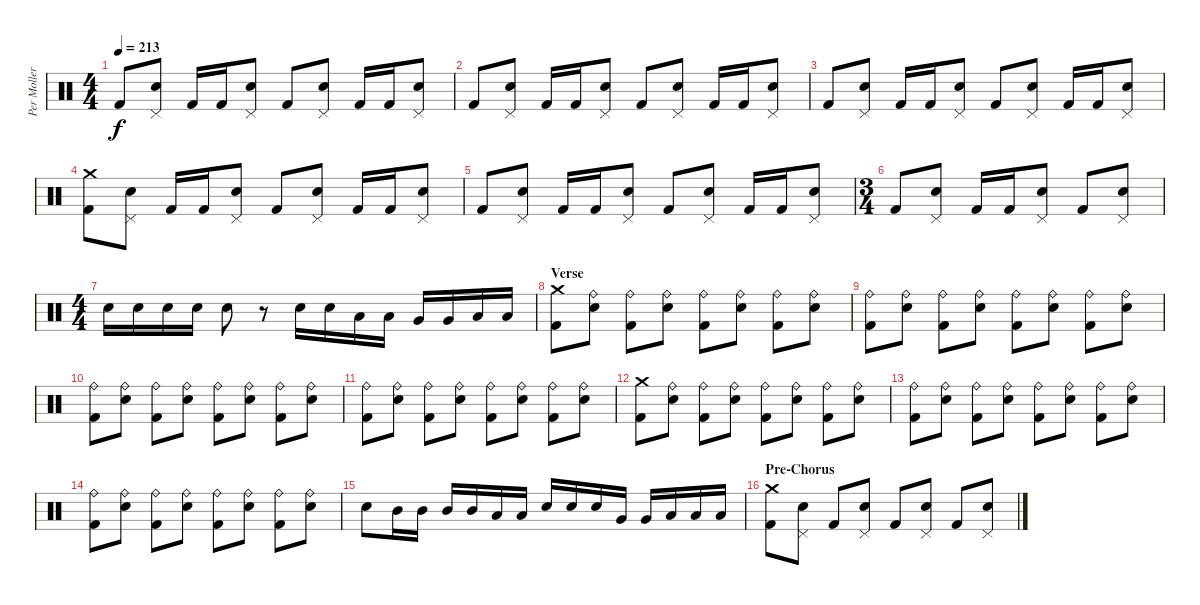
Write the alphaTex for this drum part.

\track ("Per Moller Jensen" "Per Moller") {instrument percussion}
\staff {score}
\articulation defaults
\ts (4 4)
\tempo 213
\clef neutral
\ks c "Kick (hit) 2".8{dy f}
("Pedal Hi-Hat (hit)" "Snare (hit) 2").8 "Kick (hit) 2".16 "Kick (hit) 2".16 ("Pedal Hi-Hat (hit)" "Snare (hit) 2").8 "Kick (hit) 2".8 ("Pedal Hi-Hat (hit)" "Snare (hit) 2").8 "Kick (hit) 2".16 "Kick (hit) 2".16 ("Pedal Hi-Hat (hit)" "Snare (hit) 2").8 |
"Kick (hit) 2".8 ("Pedal Hi-Hat (hit)" "Snare (hit) 2").8 "Kick (hit) 2".16 "Kick (hit) 2".16 ("Pedal Hi-Hat (hit)" "Snare (hit) 2").8 "Kick (hit) 2".8 ("Pedal Hi-Hat (hit)" "Snare (hit) 2").8 "Kick (hit) 2".16 "Kick (hit) 2".16 ("Pedal Hi-Hat (hit)" "Snare (hit) 2").8 |
"Kick (hit) 2".8 ("Pedal Hi-Hat (hit)" "Snare (hit) 2").8 "Kick (hit) 2".16 "Kick (hit) 2".16 ("Pedal Hi-Hat (hit)" "Snare (hit) 2").8 "Kick (hit) 2".8 ("Pedal Hi-Hat (hit)" "Snare (hit) 2").8 "Kick (hit) 2".16 "Kick (hit) 2".16 ("Pedal Hi-Hat (hit)" "Snare (hit) 2").8 |
("Crash medium (hit)" "Kick (hit) 2").8 ("Pedal Hi-Hat (hit)" "Snare (hit) 2").8 "Kick (hit) 2".16 "Kick (hit) 2".16 ("Pedal Hi-Hat (hit)" "Snare (hit) 2").8 "Kick (hit) 2".8 ("Pedal Hi-Hat (hit)" "Snare (hit) 2").8 "Kick (hit) 2".16 "Kick (hit) 2".16 ("Pedal Hi-Hat (hit)" "Snare (hit) 2").8 |
"Kick (hit) 2".8 ("Pedal Hi-Hat (hit)" "Snare (hit) 2").8 "Kick (hit) 2".16 "Kick (hit) 2".16 ("Pedal Hi-Hat (hit)" "Snare (hit) 2").8 "Kick (hit) 2".8 ("Pedal Hi-Hat (hit)" "Snare (hit) 2").8 "Kick (hit) 2".16 "Kick (hit) 2".16 ("Pedal Hi-Hat (hit)" "Snare (hit) 2").8 |
\ts (3 4)
"Kick (hit) 2".8 ("Pedal Hi-Hat (hit)" "Snare (hit) 2").8 "Kick (hit) 2".16 "Kick (hit) 2".16 ("Pedal Hi-Hat (hit)" "Snare (hit) 2").8 "Kick (hit) 2".8 ("Pedal Hi-Hat (hit)" "Snare (hit) 2").8 |
\ts (4 4)
"Snare (hit) 2".16 "Snare (hit) 2".16 "Snare (hit) 2".16 "Snare (hit) 2".16 "Snare (hit) 2".8 r.8 "Snare (hit) 2".16 "Snare (hit) 2".16 "Low Tom (hit)".16 "Low Tom (hit)".16 "Very Low Tom (hit)".16 "Very Low Tom (hit)".16 "Low Floor Tom (hit)".16 "Low Floor Tom (hit)".16 |
\section ("" "Verse")
("Crash medium (hit)" "Kick (hit) 2").8 ("Ride (bell)" "Snare (hit) 2").8 ("Ride (bell)" "Kick (hit) 2").8 ("Ride (bell)" "Snare (hit) 2").8 ("Ride (bell)" "Kick (hit) 2").8 ("Ride (bell)" "Snare (hit) 2").8 ("Ride (bell)" "Kick (hit) 2").8 ("Ride (bell)" "Snare (hit) 2").8 |
("Ride (bell)" "Kick (hit) 2").8 ("Ride (bell)" "Snare (hit) 2").8 ("Ride (bell)" "Kick (hit) 2").8 ("Ride (bell)" "Snare (hit) 2").8 ("Ride (bell)" "Kick (hit) 2").8 ("Ride (bell)" "Snare (hit) 2").8 ("Ride (bell)" "Kick (hit) 2").8 ("Ride (bell)" "Snare (hit) 2").8 |
("Ride (bell)" "Kick (hit) 2").8 ("Ride (bell)" "Snare (hit) 2").8 ("Ride (bell)" "Kick (hit) 2").8 ("Ride (bell)" "Snare (hit) 2").8 ("Ride (bell)" "Kick (hit) 2").8 ("Ride (bell)" "Snare (hit) 2").8 ("Ride (bell)" "Kick (hit) 2").8 ("Ride (bell)" "Snare (hit) 2").8 |
("Ride (bell)" "Kick (hit) 2").8 ("Ride (bell)" "Snare (hit) 2").8 ("Ride (bell)" "Kick (hit) 2").8 ("Ride (bell)" "Snare (hit) 2").8 ("Ride (bell)" "Kick (hit) 2").8 ("Ride (bell)" "Snare (hit) 2").8 ("Ride (bell)" "Kick (hit) 2").8 ("Ride (bell)" "Snare (hit) 2").8 |
("Crash medium (hit)" "Kick (hit) 2").8 ("Ride (bell)" "Snare (hit) 2").8 ("Ride (bell)" "Kick (hit) 2").8 ("Ride (bell)" "Snare (hit) 2").8 ("Ride (bell)" "Kick (hit) 2").8 ("Ride (bell)" "Snare (hit) 2").8 ("Ride (bell)" "Kick (hit) 2").8 ("Ride (bell)" "Snare (hit) 2").8 |
("Ride (bell)" "Kick (hit) 2").8 ("Ride (bell)" "Snare (hit) 2").8 ("Ride (bell)" "Kick (hit) 2").8 ("Ride (bell)" "Snare (hit) 2").8 ("Ride (bell)" "Kick (hit) 2").8 ("Ride (bell)" "Snare (hit) 2").8 ("Ride (bell)" "Kick (hit) 2").8 ("Ride (bell)" "Snare (hit) 2").8 |
("Ride (bell)" "Kick (hit) 2").8 ("Ride (bell)" "Snare (hit) 2").8 ("Ride (bell)" "Kick (hit) 2").8 ("Ride (bell)" "Snare (hit) 2").8 ("Ride (bell)" "Kick (hit) 2").8 ("Ride (bell)" "Snare (hit) 2").8 ("Ride (bell)" "Kick (hit) 2").8 ("Ride (bell)" "Snare (hit) 2").8 |
"Snare (hit) 2".8 "Mid Tom (hit)".16 "Mid Tom (hit)".16 "Mid Tom (hit)".16 "Mid Tom (hit)".16 "Low Tom (hit)".16 "Low Tom (hit)".16 "Snare (hit) 2".16 "Snare (hit) 2".16 "Snare (hit) 2".16 "Very Low Tom (hit)".16 "Very Low Tom (hit)".16 "Low Floor Tom (hit)".16 "Low Floor Tom (hit)".16 "Low Floor Tom (hit)".16 |
\section ("" "Pre-Chorus")
("Crash medium (hit)" "Kick (hit) 2").8 ("Pedal Hi-Hat (hit)" "Snare (hit) 2").8 "Kick (hit) 2".8 ("Pedal Hi-Hat (hit)" "Snare (hit) 2").8 "Kick (hit) 2".8 ("Pedal Hi-Hat (hit)" "Snare (hit) 2").8 "Kick (hit) 2".8 ("Pedal Hi-Hat (hit)" "Snare (hit) 2").8
